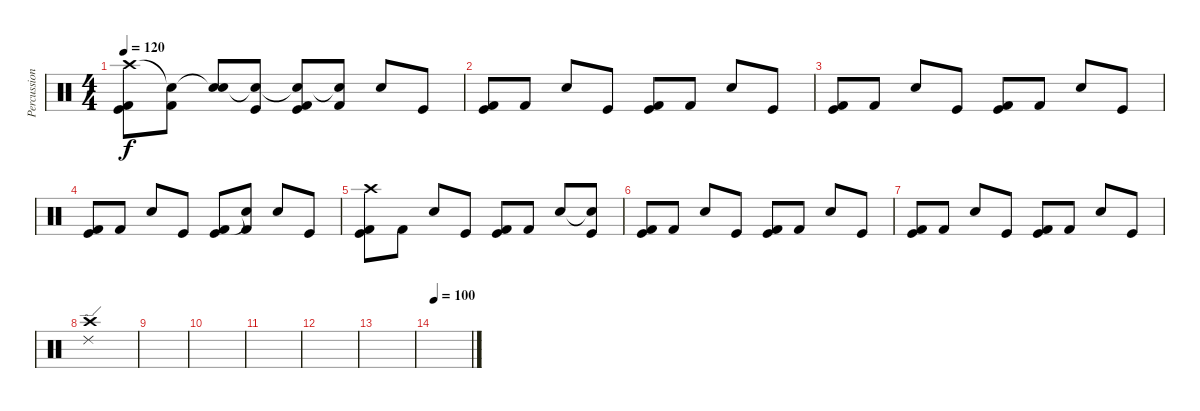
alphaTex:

\track ("Percussion" "Percussion") {instrument percussion}
\staff {score}
\articulation defaults
\ts (4 4)
\tempo 120
\clef neutral
\ks c
("Crash high (hit)" "Kick (hit) 2" "Kick (hit)").8{dy f} ("Snare (hit)"{t} "Kick (hit) 2").8 ("Snare (hit)"{t} "Electric Snare (hit)").8 ("Snare (hit)"{t} "Kick (hit)").8 ("Snare (hit)"{t} "Kick (hit) 2" "Kick (hit)").8 ("Snare (hit)"{t} "Kick (hit) 2").8 "Electric Snare (hit)".8 "Kick (hit)".8 |
("Kick (hit) 2" "Kick (hit)").8 "Kick (hit) 2".8 "Electric Snare (hit)".8 "Kick (hit)".8 ("Kick (hit) 2" "Kick (hit)").8 "Kick (hit) 2".8 "Electric Snare (hit)".8 "Kick (hit)".8 |
("Kick (hit) 2" "Kick (hit)").8 "Kick (hit) 2".8 "Electric Snare (hit)".8 "Kick (hit)".8 ("Kick (hit) 2" "Kick (hit)").8 "Kick (hit) 2".8 "Electric Snare (hit)".8 "Kick (hit)".8 |
("Kick (hit) 2" "Kick (hit)").8 "Kick (hit) 2".8 "Electric Snare (hit)".8 "Kick (hit)".8 ("Kick (hit) 2" "Kick (hit)").8 ("Snare (hit)"{t} "Kick (hit) 2").8 "Electric Snare (hit)".8 "Kick (hit)".8 |
("Crash high (hit)" "Kick (hit) 2" "Kick (hit)").8 "Kick (hit) 2".8 "Electric Snare (hit)".8 "Kick (hit)".8 ("Kick (hit) 2" "Kick (hit)").8 "Kick (hit) 2".8 "Electric Snare (hit)".8 ("Snare (hit)"{t} "Kick (hit)").8 |
("Kick (hit) 2" "Kick (hit)").8 "Kick (hit) 2".8 "Electric Snare (hit)".8 "Kick (hit)".8 ("Kick (hit) 2" "Kick (hit)").8 "Kick (hit) 2".8 "Electric Snare (hit)".8 "Kick (hit)".8 |
("Kick (hit) 2" "Kick (hit)").8 "Kick (hit) 2".8 "Electric Snare (hit)".8 "Kick (hit)".8 ("Kick (hit) 2" "Kick (hit)").8 "Kick (hit) 2".8 "Electric Snare (hit)".8 "Kick (hit)".8 |
("Crash high (hit)" "Ride (edge) 2").1 |
|
|
|
|
|
\tempo 100
